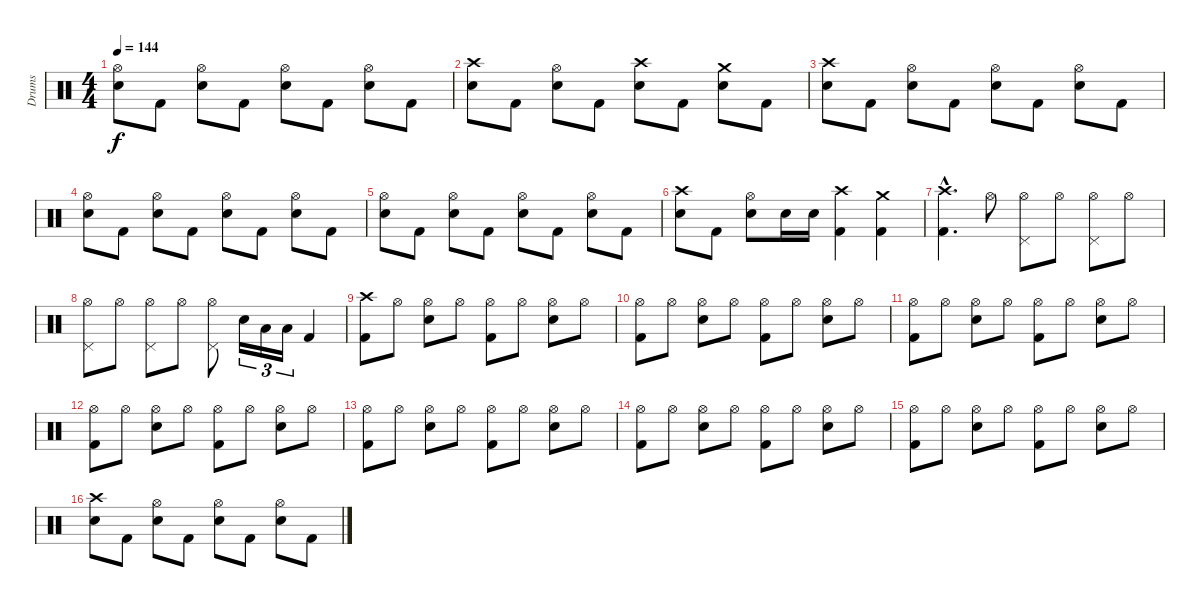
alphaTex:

\track ("Drums" "Drums") {instrument percussion}
\staff {score}
\articulation defaults
\ts (4 4)
\tempo 144
\clef neutral
\ks c
("Hi-Hat (open)" "Electric Snare (hit)").8{dy f} "Kick (hit) 2".8 ("Hi-Hat (open)" "Electric Snare (hit)").8 "Kick (hit) 2".8 ("Hi-Hat (open)" "Electric Snare (hit)").8 "Kick (hit) 2".8 ("Hi-Hat (open)" "Electric Snare (hit)").8 "Kick (hit) 2".8 |
("Crash high (hit)" "Electric Snare (hit)").8 "Kick (hit) 2".8 ("Hi-Hat (open)" "Electric Snare (hit)").8 "Kick (hit) 2".8 ("Crash high (hit)" "Electric Snare (hit)").8 "Kick (hit) 2".8 ("Crash medium (hit)" "Electric Snare (hit)").8 "Kick (hit) 2".8 |
("Crash high (hit)" "Electric Snare (hit)").8 "Kick (hit) 2".8 ("Hi-Hat (open)" "Electric Snare (hit)").8 "Kick (hit) 2".8 ("Hi-Hat (open)" "Electric Snare (hit)").8 "Kick (hit) 2".8 ("Hi-Hat (open)" "Electric Snare (hit)").8 "Kick (hit) 2".8 |
("Hi-Hat (open)" "Electric Snare (hit)").8 "Kick (hit) 2".8 ("Hi-Hat (open)" "Electric Snare (hit)").8 "Kick (hit) 2".8 ("Hi-Hat (open)" "Electric Snare (hit)").8 "Kick (hit) 2".8 ("Hi-Hat (open)" "Electric Snare (hit)").8 "Kick (hit) 2".8 |
("Hi-Hat (open)" "Electric Snare (hit)").8 "Kick (hit) 2".8 ("Hi-Hat (open)" "Electric Snare (hit)").8 "Kick (hit) 2".8 ("Hi-Hat (open)" "Electric Snare (hit)").8 "Kick (hit) 2".8 ("Hi-Hat (open)" "Electric Snare (hit)").8 "Kick (hit) 2".8 |
("Crash high (hit)" "Electric Snare (hit)").8 "Kick (hit) 2".8 ("Hi-Hat (open)" "Electric Snare (hit)").8 "Electric Snare (hit)".16 "Electric Snare (hit)".16 ("Crash high (hit)" "Kick (hit) 2").4 ("Crash medium (hit)" "Kick (hit) 2").4 |
("Crash high (hit)"{hac} "Kick (hit) 2"{hac}).4{d} "Hi-Hat (open)".8 ("Hi-Hat (open)" "Pedal Hi-Hat (hit)").8 "Hi-Hat (open)".8 ("Hi-Hat (open)" "Pedal Hi-Hat (hit)").8 "Hi-Hat (open)".8 |
("Hi-Hat (open)" "Pedal Hi-Hat (hit)").8 "Hi-Hat (open)".8 ("Hi-Hat (open)" "Pedal Hi-Hat (hit)").8 "Hi-Hat (open)".8 ("Hi-Hat (open)" "Pedal Hi-Hat (hit)").8 "Electric Snare (hit)".16{tu (3 2)} "Low Tom (hit)".16{tu (3 2)} "Low Floor Tom (hit)".16{tu (3 2)} "Kick (hit) 2".4 |
("Crash high (hit)" "Kick (hit) 2").8 "Hi-Hat (open)".8 ("Hi-Hat (open)" "Electric Snare (hit)").8 "Hi-Hat (open)".8 ("Hi-Hat (open)" "Kick (hit) 2").8 "Hi-Hat (open)".8 ("Hi-Hat (open)" "Electric Snare (hit)").8 "Hi-Hat (open)".8 |
("Hi-Hat (open)" "Kick (hit) 2").8 "Hi-Hat (open)".8 ("Hi-Hat (open)" "Electric Snare (hit)").8 "Hi-Hat (open)".8 ("Hi-Hat (open)" "Kick (hit) 2").8 "Hi-Hat (open)".8 ("Hi-Hat (open)" "Electric Snare (hit)").8 "Hi-Hat (open)".8 |
("Hi-Hat (open)" "Kick (hit) 2").8 "Hi-Hat (open)".8 ("Hi-Hat (open)" "Electric Snare (hit)").8 "Hi-Hat (open)".8 ("Hi-Hat (open)" "Kick (hit) 2").8 "Hi-Hat (open)".8 ("Hi-Hat (open)" "Electric Snare (hit)").8 "Hi-Hat (open)".8 |
("Hi-Hat (open)" "Kick (hit) 2").8 "Hi-Hat (open)".8 ("Hi-Hat (open)" "Electric Snare (hit)").8 "Hi-Hat (open)".8 ("Hi-Hat (open)" "Kick (hit) 2").8 "Hi-Hat (open)".8 ("Hi-Hat (open)" "Electric Snare (hit)").8 "Hi-Hat (open)".8 |
("Hi-Hat (open)" "Kick (hit) 2").8 "Hi-Hat (open)".8 ("Hi-Hat (open)" "Electric Snare (hit)").8 "Hi-Hat (open)".8 ("Hi-Hat (open)" "Kick (hit) 2").8 "Hi-Hat (open)".8 ("Hi-Hat (open)" "Electric Snare (hit)").8 "Hi-Hat (open)".8 |
("Hi-Hat (open)" "Kick (hit) 2").8 "Hi-Hat (open)".8 ("Hi-Hat (open)" "Electric Snare (hit)").8 "Hi-Hat (open)".8 ("Hi-Hat (open)" "Kick (hit) 2").8 "Hi-Hat (open)".8 ("Hi-Hat (open)" "Electric Snare (hit)").8 "Hi-Hat (open)".8 |
("Hi-Hat (open)" "Kick (hit) 2").8 "Hi-Hat (open)".8 ("Hi-Hat (open)" "Electric Snare (hit)").8 "Hi-Hat (open)".8 ("Hi-Hat (open)" "Kick (hit) 2").8 "Hi-Hat (open)".8 ("Hi-Hat (open)" "Electric Snare (hit)").8 "Hi-Hat (open)".8 |
("Crash high (hit)" "Electric Snare (hit)").8 "Kick (hit) 2".8 ("Hi-Hat (open)" "Electric Snare (hit)").8 "Kick (hit) 2".8 ("Hi-Hat (open)" "Electric Snare (hit)").8 "Kick (hit) 2".8 ("Hi-Hat (open)" "Electric Snare (hit)").8 "Kick (hit) 2".8
